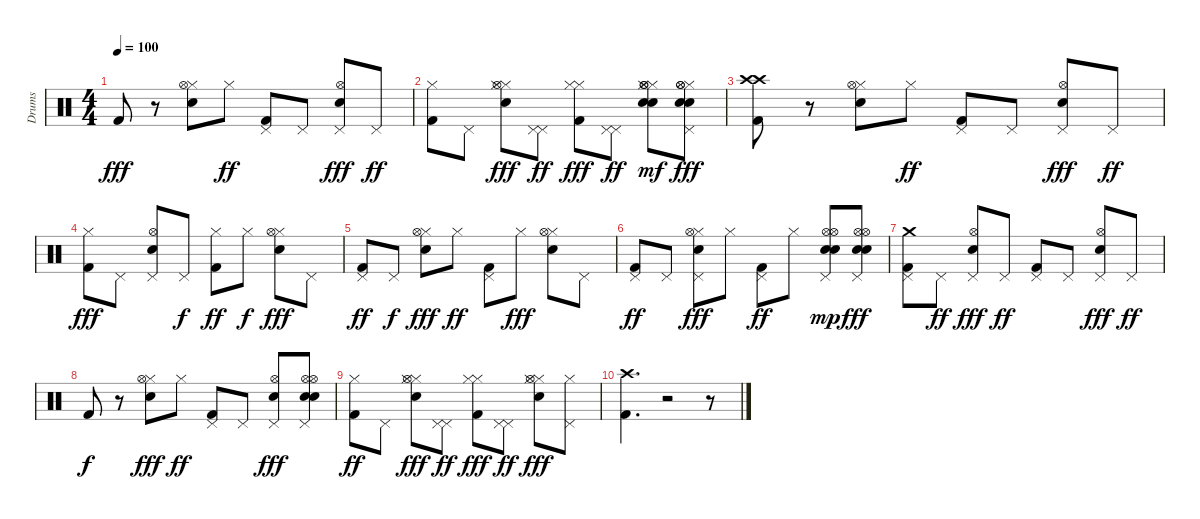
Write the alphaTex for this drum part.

\track ("Drums" "Drums") {instrument percussion}
\staff {score}
\articulation defaults
\ts (4 4)
\tempo 100
\clef neutral
\ks c "Kick (hit) 2".8{dy fff}
r.8 ("Snare (hit) 2" "Hi-Hat (closed)" "Hi-Hat (open)").8 "Hi-Hat (closed)".8{dy ff} ("Kick (hit) 2" "Pedal Hi-Hat (hit)").8 "Pedal Hi-Hat (hit)".8 ("Snare (hit) 2" "Pedal Hi-Hat (hit)" "Hi-Hat (open)").8{dy fff} "Pedal Hi-Hat (hit)".8{dy ff} |
("Kick (hit) 2" "Hi-Hat (closed)").8 "Pedal Hi-Hat (hit)".8 ("Snare (hit) 2" "Hi-Hat (closed)" "Hi-Hat (closed)" "Hi-Hat (open)").8{dy fff} ("Pedal Hi-Hat (hit)" "Pedal Hi-Hat (hit)").8{dy ff} ("Kick (hit) 2" "Hi-Hat (closed)" "Hi-Hat (closed)").8{dy fff} ("Pedal Hi-Hat (hit)" "Pedal Hi-Hat (hit)").8{dy ff} ("Snare (hit) 2" "Hi-Hat (closed)" "Hi-Hat (closed)" "Hi-Hat (open)" "Snare (hit) 2" "Hi-Hat (open)").8{dy mf} ("Snare (hit) 2" "Hi-Hat (closed)" "Pedal Hi-Hat (hit)" "Hi-Hat (open)" "Snare (hit) 2" "Hi-Hat (open)").8{dy fff} |
("Kick (hit) 2" "Crash high (hit)" "Crash high (hit)").8 r.8 ("Snare (hit) 2" "Hi-Hat (closed)" "Hi-Hat (open)").8 "Hi-Hat (closed)".8{dy ff} ("Kick (hit) 2" "Pedal Hi-Hat (hit)").8 "Pedal Hi-Hat (hit)".8 ("Snare (hit) 2" "Pedal Hi-Hat (hit)" "Hi-Hat (open)").8{dy fff} "Pedal Hi-Hat (hit)".8{dy ff} |
("Kick (hit) 2" "Hi-Hat (closed)").8{dy fff} "Pedal Hi-Hat (hit)".8 ("Snare (hit) 2" "Pedal Hi-Hat (hit)" "Hi-Hat (open)").8 "Pedal Hi-Hat (hit)".8{dy f} ("Kick (hit) 2" "Hi-Hat (closed)").8{dy ff} "Hi-Hat (closed)".8{dy f} ("Snare (hit) 2" "Hi-Hat (closed)" "Hi-Hat (open)").8{dy fff} "Pedal Hi-Hat (hit)".8 |
("Kick (hit) 2" "Pedal Hi-Hat (hit)").8{dy ff} "Pedal Hi-Hat (hit)".8{dy f} ("Snare (hit) 2" "Hi-Hat (closed)" "Hi-Hat (open)").8{dy fff} "Hi-Hat (closed)".8{dy ff} ("Kick (hit) 2" "Pedal Hi-Hat (hit)").8 "Hi-Hat (closed)".8{dy fff} ("Snare (hit) 2" "Hi-Hat (closed)" "Hi-Hat (open)").8 "Pedal Hi-Hat (hit)".8 |
("Kick (hit) 2" "Pedal Hi-Hat (hit)").8{dy ff} "Pedal Hi-Hat (hit)".8 ("Snare (hit) 2" "Hi-Hat (closed)" "Pedal Hi-Hat (hit)" "Hi-Hat (open)").8{dy fff} "Hi-Hat (closed)".8 ("Kick (hit) 2" "Pedal Hi-Hat (hit)").8{dy ff} "Hi-Hat (closed)".8 ("Snare (hit) 2" "Pedal Hi-Hat (hit)" "Hi-Hat (open)" "Snare (hit) 2" "Hi-Hat (open)").8{dy mp} ("Snare (hit) 2" "Pedal Hi-Hat (hit)" "Hi-Hat (open)" "Snare (hit) 2" "Hi-Hat (open)").8{dy fff} |
("Kick (hit) 2" "Crash medium (hit)" "Pedal Hi-Hat (hit)").8 "Pedal Hi-Hat (hit)".8{dy ff} ("Snare (hit) 2" "Pedal Hi-Hat (hit)" "Hi-Hat (open)").8{dy fff} "Pedal Hi-Hat (hit)".8{dy ff} ("Kick (hit) 2" "Pedal Hi-Hat (hit)").8 "Pedal Hi-Hat (hit)".8 ("Snare (hit) 2" "Pedal Hi-Hat (hit)" "Hi-Hat (open)").8{dy fff} "Pedal Hi-Hat (hit)".8{dy ff} |
"Kick (hit) 2".8{dy f} r.8 ("Snare (hit) 2" "Hi-Hat (closed)" "Hi-Hat (open)").8{dy fff} "Hi-Hat (closed)".8{dy ff} ("Kick (hit) 2" "Pedal Hi-Hat (hit)").8 "Pedal Hi-Hat (hit)".8 ("Snare (hit) 2" "Pedal Hi-Hat (hit)" "Hi-Hat (open)").8{dy fff} ("Snare (hit) 2" "Pedal Hi-Hat (hit)" "Hi-Hat (open)" "Snare (hit) 2" "Hi-Hat (open)").8 |
("Kick (hit) 2" "Hi-Hat (closed)").8{dy ff} "Pedal Hi-Hat (hit)".8 ("Snare (hit) 2" "Hi-Hat (closed)" "Hi-Hat (closed)" "Hi-Hat (open)").8{dy fff} ("Pedal Hi-Hat (hit)" "Pedal Hi-Hat (hit)").8{dy ff} ("Kick (hit) 2" "Hi-Hat (closed)" "Hi-Hat (closed)").8{dy fff} ("Pedal Hi-Hat (hit)" "Pedal Hi-Hat (hit)").8{dy ff} ("Snare (hit) 2" "Hi-Hat (closed)" "Hi-Hat (closed)" "Hi-Hat (open)").8{dy fff} ("Hi-Hat (closed)" "Pedal Hi-Hat (hit)").8 |
("Crash high (hit)" "Kick (hit) 2").4{d} r.2 r.8
